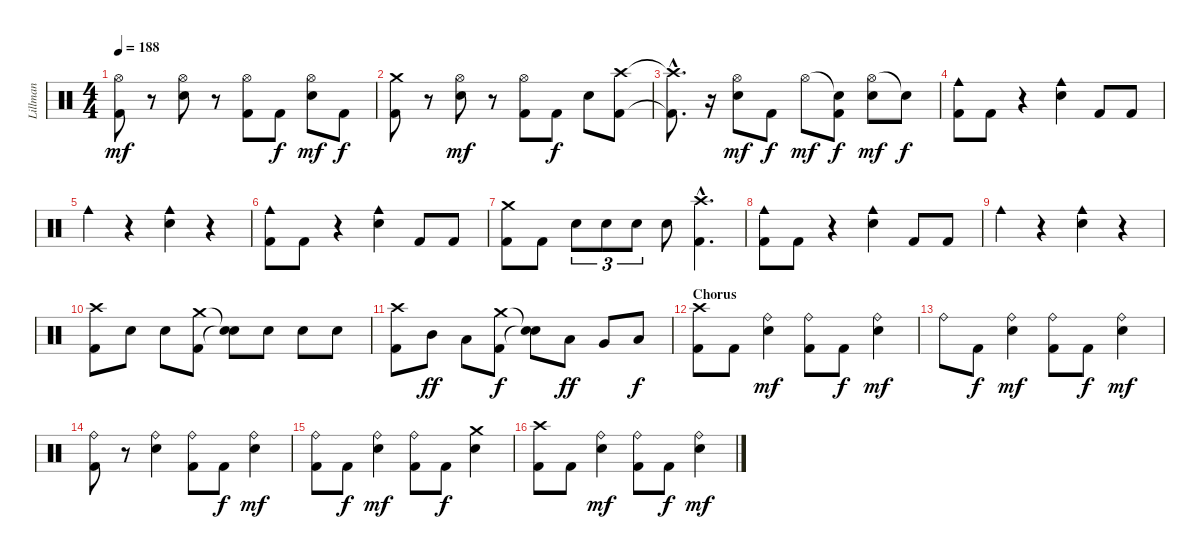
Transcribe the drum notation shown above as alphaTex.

\track ("Lillman" "Lillman") {instrument percussion}
\staff {score}
\articulation defaults
\ts (4 4)
\tempo 188
\clef neutral
\ks c
("Hi-Hat (open)" "Kick (hit) 2").8{dy mf} r.8 ("Hi-Hat (open)" "Snare (hit) 2").8 r.8 ("Hi-Hat (open)" "Kick (hit) 2").8 "Kick (hit) 2".8{dy f} ("Hi-Hat (open)" "Snare (hit) 2").8{dy mf} "Kick (hit) 2".8{dy f} |
("Crash medium (hit)" "Kick (hit) 2").8 r.8 ("Hi-Hat (open)" "Snare (hit) 2").8{dy mf} r.8 ("Hi-Hat (open)" "Kick (hit) 2").8 "Kick (hit) 2".8{dy f} "Snare (hit) 2".8 ("Crash high (hit)" "Kick (hit) 2").8 |
("Crash high (hit)"{hac t} "Kick (hit) 2"{hac t}).8{d} r.16 ("Hi-Hat (open)" "Snare (hit) 2").8{dy mf} "Kick (hit) 2".8{dy f} "Hi-Hat (open)".8{dy mf} ("Snare (hit)"{t} "Kick (hit) 2").8{dy f} ("Hi-Hat (open)" "Snare (hit) 2").8{dy mf} "Snare (hit)"{t}.8{dy f} |
("Cowbell medium (hit)" "Kick (hit) 2").8 "Kick (hit) 2".8 r.4 ("Cowbell medium (hit)" "Snare (hit) 2").4 "Kick (hit) 2".8 "Kick (hit) 2".8 |
"Cowbell medium (hit)".4 r.4 ("Cowbell medium (hit)" "Snare (hit) 2").4 r.4 |
("Cowbell medium (hit)" "Kick (hit) 2").8 "Kick (hit) 2".8 r.4 ("Cowbell medium (hit)" "Snare (hit) 2").4 "Kick (hit) 2".8 "Kick (hit) 2".8 |
("Crash medium (hit)" "Kick (hit) 2").8 "Kick (hit) 2".8 "Snare (hit) 2".8{tu (3 2)} "Snare (hit) 2".8{tu (3 2)} "Snare (hit) 2".8{tu (3 2)} "Snare (hit) 2".8 ("Crash high (hit)"{hac} "Kick (hit) 2"{hac}).4{d} |
("Cowbell medium (hit)" "Kick (hit) 2").8 "Kick (hit) 2".8 r.4 ("Cowbell medium (hit)" "Snare (hit) 2").4 "Kick (hit) 2".8 "Kick (hit) 2".8 |
"Cowbell medium (hit)".4 r.4 ("Cowbell medium (hit)" "Snare (hit) 2").4 r.4 |
("Crash high (hit)" "Kick (hit) 2").8 "Snare (hit) 2".8 "Snare (hit) 2".8 ("Crash medium (hit)" "Kick (hit) 2").8 ("Snare (hit)"{t} "Snare (hit)"{t}).8 "Snare (hit) 2".8 "Snare (hit) 2".8 "Snare (hit) 2".8 |
("Crash high (hit)" "Kick (hit) 2").8 "Mid Tom (hit)".8{dy ff} "Low Tom (hit)".8 ("Crash medium (hit)" "Kick (hit) 2").8{dy f} ("Snare (hit)"{t} "Snare (hit)"{t}).8 "Low Tom (hit)".8{dy ff} "Very Low Tom (hit)".8 "Low Floor Tom (hit)".8{dy f} |
\section ("" "Chorus")
("Crash high (hit)" "Kick (hit) 2").8 "Kick (hit) 2".8 ("Ride (bell)" "Snare (hit) 2").4{dy mf} ("Ride (bell)" "Kick (hit) 2").8 "Kick (hit) 2".8{dy f} ("Ride (bell)" "Snare (hit) 2").4{dy mf} |
"Ride (bell)".8 "Kick (hit) 2".8{dy f} ("Ride (bell)" "Snare (hit) 2").4{dy mf} ("Ride (bell)" "Kick (hit) 2").8 "Kick (hit) 2".8{dy f} ("Ride (bell)" "Snare (hit) 2").4{dy mf} |
("Ride (bell)" "Kick (hit) 2").8 r.8 ("Ride (bell)" "Snare (hit) 2").4 ("Ride (bell)" "Kick (hit) 2").8 "Kick (hit) 2".8{dy f} ("Ride (bell)" "Snare (hit) 2").4{dy mf} |
("Ride (bell)" "Kick (hit) 2").8 "Kick (hit) 2".8{dy f} ("Ride (bell)" "Snare (hit) 2").4{dy mf} ("Ride (bell)" "Kick (hit) 2").8 "Kick (hit) 2".8{dy f} ("Crash medium (hit)" "Snare (hit) 2").4 |
("Crash high (hit)" "Kick (hit) 2").8 "Kick (hit) 2".8 ("Ride (bell)" "Snare (hit) 2").4{dy mf} ("Ride (bell)" "Kick (hit) 2").8 "Kick (hit) 2".8{dy f} ("Ride (bell)" "Snare (hit) 2").4{dy mf}
